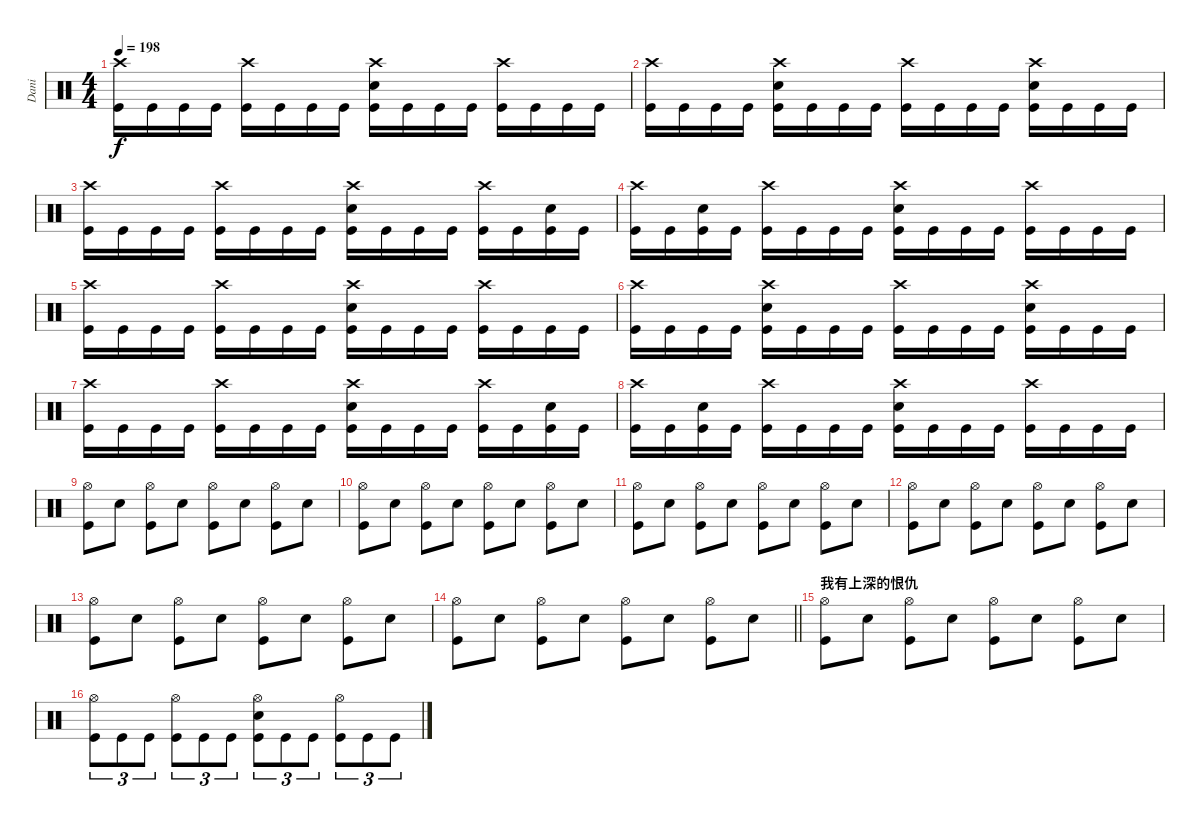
\track ("Dani" "Dani") {instrument percussion}
\staff {score}
\articulation defaults
\ts (4 4)
\tempo 198
\clef neutral
\ks c
("Crash high (hit)" "Kick (hit)").16{dy f} "Kick (hit)".16 "Kick (hit)".16 "Kick (hit)".16 ("Crash high (hit)" "Kick (hit)").16 "Kick (hit)".16 "Kick (hit)".16 "Kick (hit)".16 ("Crash high (hit)" "Snare (hit) 2" "Kick (hit)").16 "Kick (hit)".16 "Kick (hit)".16 "Kick (hit)".16 ("Crash high (hit)" "Kick (hit)").16 "Kick (hit)".16 "Kick (hit)".16 "Kick (hit)".16 |
("Crash high (hit)" "Kick (hit)").16 "Kick (hit)".16 "Kick (hit)".16 "Kick (hit)".16 ("Snare (hit) 2" "Crash high (hit)" "Kick (hit)").16 "Kick (hit)".16 "Kick (hit)".16 "Kick (hit)".16 ("Crash high (hit)" "Kick (hit)").16 "Kick (hit)".16 "Kick (hit)".16 "Kick (hit)".16 ("Snare (hit) 2" "Crash high (hit)" "Kick (hit)").16 "Kick (hit)".16 "Kick (hit)".16 "Kick (hit)".16 |
("Crash high (hit)" "Kick (hit)").16 "Kick (hit)".16 "Kick (hit)".16 "Kick (hit)".16 ("Crash high (hit)" "Kick (hit)").16 "Kick (hit)".16 "Kick (hit)".16 "Kick (hit)".16 ("Crash high (hit)" "Snare (hit) 2" "Kick (hit)").16 "Kick (hit)".16 "Kick (hit)".16 "Kick (hit)".16 ("Crash high (hit)" "Kick (hit)").16 "Kick (hit)".16 ("Snare (hit) 2" "Kick (hit)").16 "Kick (hit)".16 |
("Crash high (hit)" "Kick (hit)").16 "Kick (hit)".16 ("Snare (hit) 2" "Kick (hit)").16 "Kick (hit)".16 ("Crash high (hit)" "Kick (hit)").16 "Kick (hit)".16 "Kick (hit)".16 "Kick (hit)".16 ("Snare (hit) 2" "Crash high (hit)" "Kick (hit)").16 "Kick (hit)".16 "Kick (hit)".16 "Kick (hit)".16 ("Crash high (hit)" "Kick (hit)").16 "Kick (hit)".16 "Kick (hit)".16 "Kick (hit)".16 |
("Crash high (hit)" "Kick (hit)").16 "Kick (hit)".16 "Kick (hit)".16 "Kick (hit)".16 ("Crash high (hit)" "Kick (hit)").16 "Kick (hit)".16 "Kick (hit)".16 "Kick (hit)".16 ("Crash high (hit)" "Snare (hit) 2" "Kick (hit)").16 "Kick (hit)".16 "Kick (hit)".16 "Kick (hit)".16 ("Crash high (hit)" "Kick (hit)").16 "Kick (hit)".16 "Kick (hit)".16 "Kick (hit)".16 |
("Crash high (hit)" "Kick (hit)").16 "Kick (hit)".16 "Kick (hit)".16 "Kick (hit)".16 ("Snare (hit) 2" "Crash high (hit)" "Kick (hit)").16 "Kick (hit)".16 "Kick (hit)".16 "Kick (hit)".16 ("Crash high (hit)" "Kick (hit)").16 "Kick (hit)".16 "Kick (hit)".16 "Kick (hit)".16 ("Snare (hit) 2" "Crash high (hit)" "Kick (hit)").16 "Kick (hit)".16 "Kick (hit)".16 "Kick (hit)".16 |
("Crash high (hit)" "Kick (hit)").16 "Kick (hit)".16 "Kick (hit)".16 "Kick (hit)".16 ("Crash high (hit)" "Kick (hit)").16 "Kick (hit)".16 "Kick (hit)".16 "Kick (hit)".16 ("Crash high (hit)" "Snare (hit) 2" "Kick (hit)").16 "Kick (hit)".16 "Kick (hit)".16 "Kick (hit)".16 ("Crash high (hit)" "Kick (hit)").16 "Kick (hit)".16 ("Snare (hit) 2" "Kick (hit)").16 "Kick (hit)".16 |
("Crash high (hit)" "Kick (hit)").16 "Kick (hit)".16 ("Snare (hit) 2" "Kick (hit)").16 "Kick (hit)".16 ("Crash high (hit)" "Kick (hit)").16 "Kick (hit)".16 "Kick (hit)".16 "Kick (hit)".16 ("Snare (hit) 2" "Crash high (hit)" "Kick (hit)").16 "Kick (hit)".16 "Kick (hit)".16 "Kick (hit)".16 ("Crash high (hit)" "Kick (hit)").16 "Kick (hit)".16 "Kick (hit)".16 "Kick (hit)".16 |
("Hi-Hat (open)" "Kick (hit)").8 "Snare (hit) 2".8 ("Hi-Hat (open)" "Kick (hit)").8 "Snare (hit) 2".8 ("Hi-Hat (open)" "Kick (hit)").8 "Snare (hit) 2".8 ("Hi-Hat (open)" "Kick (hit)").8 "Snare (hit) 2".8 |
("Hi-Hat (open)" "Kick (hit)").8 "Snare (hit) 2".8 ("Hi-Hat (open)" "Kick (hit)").8 "Snare (hit) 2".8 ("Hi-Hat (open)" "Kick (hit)").8 "Snare (hit) 2".8 ("Hi-Hat (open)" "Kick (hit)").8 "Snare (hit) 2".8 |
("Hi-Hat (open)" "Kick (hit)").8 "Snare (hit) 2".8 ("Hi-Hat (open)" "Kick (hit)").8 "Snare (hit) 2".8 ("Hi-Hat (open)" "Kick (hit)").8 "Snare (hit) 2".8 ("Hi-Hat (open)" "Kick (hit)").8 "Snare (hit) 2".8 |
("Hi-Hat (open)" "Kick (hit)").8 "Snare (hit) 2".8 ("Hi-Hat (open)" "Kick (hit)").8 "Snare (hit) 2".8 ("Hi-Hat (open)" "Kick (hit)").8 "Snare (hit) 2".8 ("Hi-Hat (open)" "Kick (hit)").8 "Snare (hit) 2".8 |
("Hi-Hat (open)" "Kick (hit)").8 "Snare (hit) 2".8 ("Hi-Hat (open)" "Kick (hit)").8 "Snare (hit) 2".8 ("Hi-Hat (open)" "Kick (hit)").8 "Snare (hit) 2".8 ("Hi-Hat (open)" "Kick (hit)").8 "Snare (hit) 2".8 |
\barLineRight lightlight
("Hi-Hat (open)" "Kick (hit)").8 "Snare (hit) 2".8 ("Hi-Hat (open)" "Kick (hit)").8 "Snare (hit) 2".8 ("Hi-Hat (open)" "Kick (hit)").8 "Snare (hit) 2".8 ("Hi-Hat (open)" "Kick (hit)").8 "Snare (hit) 2".8 |
\section ("" "我有上深的恨仇")
("Hi-Hat (open)" "Kick (hit)").8 "Snare (hit) 2".8 ("Hi-Hat (open)" "Kick (hit)").8 "Snare (hit) 2".8 ("Hi-Hat (open)" "Kick (hit)").8 "Snare (hit) 2".8 ("Hi-Hat (open)" "Kick (hit)").8 "Snare (hit) 2".8 |
("Hi-Hat (open)" "Kick (hit)").8{tu (3 2)} "Kick (hit)".8{tu (3 2)} "Kick (hit)".8{tu (3 2)} ("Hi-Hat (open)" "Kick (hit)").8{tu (3 2)} "Kick (hit)".8{tu (3 2)} "Kick (hit)".8{tu (3 2)} ("Hi-Hat (open)" "Kick (hit)" "Snare (hit) 2").8{tu (3 2)} "Kick (hit)".8{tu (3 2)} "Kick (hit)".8{tu (3 2)} ("Hi-Hat (open)" "Kick (hit)").8{tu (3 2)} "Kick (hit)".8{tu (3 2)} "Kick (hit)".8{tu (3 2)}
